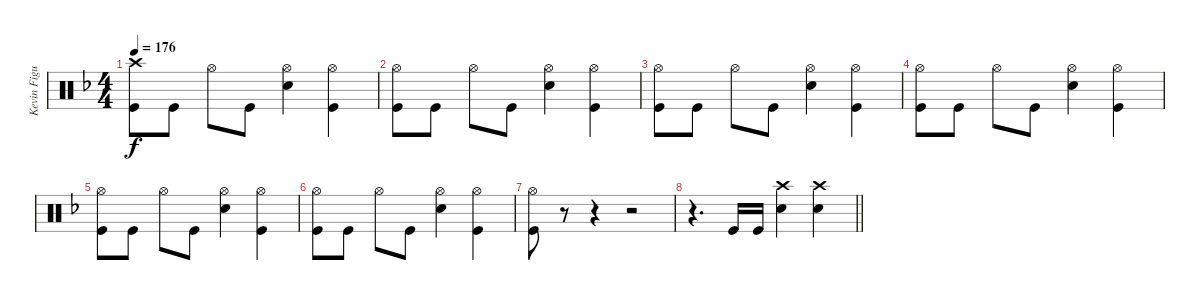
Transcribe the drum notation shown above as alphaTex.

\track ("Kevin Figueiredo - Drums" "Kevin Figu") {instrument percussion}
\staff {score}
\articulation defaults
\ts (4 4)
\tempo 176
\clef neutral
\ks f
("Crash high (hit)" "Kick (hit)").8{dy f} "Kick (hit)".8 "Hi-Hat (open)".8 "Kick (hit)".8 ("Hi-Hat (open)" "Snare (hit) 2").4 ("Hi-Hat (open)" "Kick (hit)").4 |
("Hi-Hat (open)" "Kick (hit)").8 "Kick (hit)".8 "Hi-Hat (open)".8 "Kick (hit)".8 ("Hi-Hat (open)" "Snare (hit) 2").4 ("Hi-Hat (open)" "Kick (hit)").4 |
("Hi-Hat (open)" "Kick (hit)").8 "Kick (hit)".8 "Hi-Hat (open)".8 "Kick (hit)".8 ("Hi-Hat (open)" "Snare (hit) 2").4 ("Hi-Hat (open)" "Kick (hit)").4 |
("Hi-Hat (open)" "Kick (hit)").8 "Kick (hit)".8 "Hi-Hat (open)".8 "Kick (hit)".8 ("Hi-Hat (open)" "Snare (hit) 2").4 ("Hi-Hat (open)" "Kick (hit)").4 |
("Hi-Hat (open)" "Kick (hit)").8 "Kick (hit)".8 "Hi-Hat (open)".8 "Kick (hit)".8 ("Hi-Hat (open)" "Snare (hit) 2").4 ("Hi-Hat (open)" "Kick (hit)").4 |
("Hi-Hat (open)" "Kick (hit)").8 "Kick (hit)".8 "Hi-Hat (open)".8 "Kick (hit)".8 ("Hi-Hat (open)" "Snare (hit) 2").4 ("Hi-Hat (open)" "Kick (hit)").4 |
("Hi-Hat (open)" "Kick (hit)").8 r.8 r.4 r.2 |
\barLineRight lightlight
r.4{d} "Kick (hit)".16 "Kick (hit)".16 ("Crash high (hit)" "Snare (hit) 2").4 ("Crash high (hit)" "Snare (hit) 2").4
